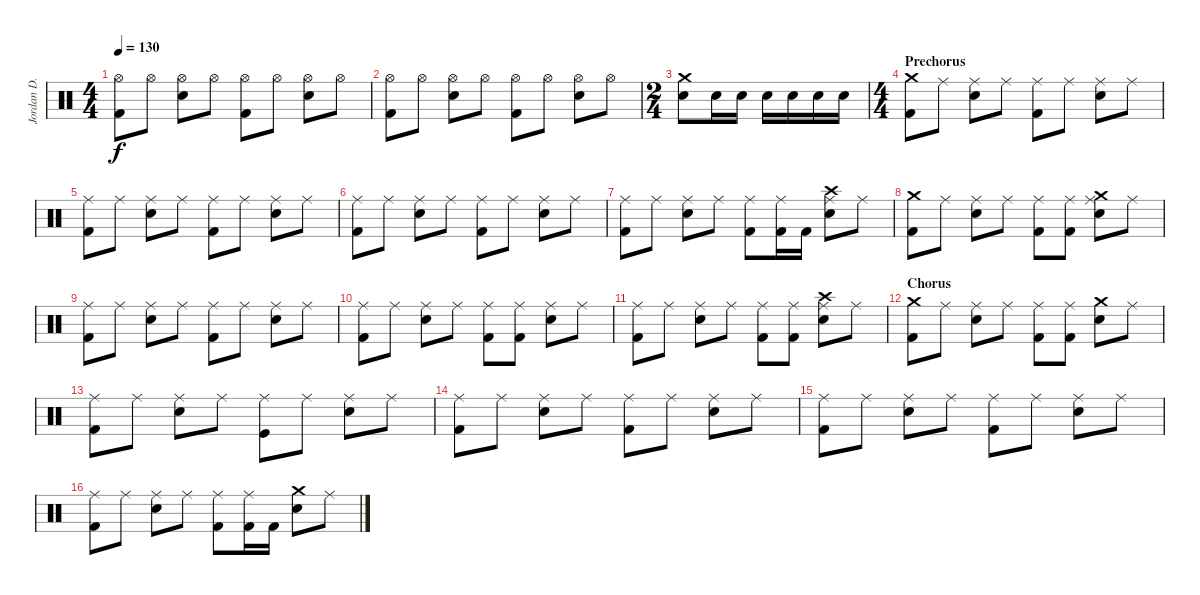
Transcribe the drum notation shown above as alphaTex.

\track ("Jordan D. Samolesky" "Jordan D. ") {instrument percussion}
\staff {score}
\articulation defaults
\ts (4 4)
\tempo 130
\clef neutral
\ks c
("Hi-Hat (open)" "Kick (hit) 2").8{dy f} "Hi-Hat (open)".8 ("Electric Snare (hit)" "Hi-Hat (open)").8 "Hi-Hat (open)".8 ("Hi-Hat (open)" "Kick (hit) 2").8 "Hi-Hat (open)".8 ("Electric Snare (hit)" "Hi-Hat (open)").8 "Hi-Hat (open)".8 |
("Hi-Hat (open)" "Kick (hit) 2").8 "Hi-Hat (open)".8 ("Electric Snare (hit)" "Hi-Hat (open)").8 "Hi-Hat (open)".8 ("Hi-Hat (open)" "Kick (hit) 2").8 "Hi-Hat (open)".8 ("Electric Snare (hit)" "Hi-Hat (open)").8 "Hi-Hat (open)".8 |
\ts (2 4)
("Crash medium (hit)" "Electric Snare (hit)").8 "Electric Snare (hit)".16 "Electric Snare (hit)".16 "Electric Snare (hit)".16 "Electric Snare (hit)".16 "Electric Snare (hit)".16 "Electric Snare (hit)".16 |
\ts (4 4)
\section ("" "Prechorus")
("Crash medium (hit)" "Kick (hit) 2").8 "Ride (middle)".8 ("Electric Snare (hit)" "Ride (middle)").8 "Ride (middle)".8 ("Ride (middle)" "Kick (hit) 2").8 "Ride (middle)".8 ("Electric Snare (hit)" "Ride (middle)").8 "Ride (middle)".8 |
("Ride (middle)" "Kick (hit) 2").8 "Ride (middle)".8 ("Electric Snare (hit)" "Ride (middle)").8 "Ride (middle)".8 ("Ride (middle)" "Kick (hit) 2").8 "Ride (middle)".8 ("Electric Snare (hit)" "Ride (middle)").8 "Ride (middle)".8 |
("Ride (middle)" "Kick (hit) 2").8 "Ride (middle)".8 ("Electric Snare (hit)" "Ride (middle)").8 "Ride (middle)".8 ("Ride (middle)" "Kick (hit) 2").8 "Ride (middle)".8 ("Electric Snare (hit)" "Ride (middle)").8 "Ride (middle)".8 |
("Ride (middle)" "Kick (hit) 2").8 "Ride (middle)".8 ("Electric Snare (hit)" "Ride (middle)").8 "Ride (middle)".8 ("Ride (middle)" "Kick (hit) 2").8 ("Ride (middle)" "Kick (hit) 2").16 "Kick (hit) 2".16 ("Crash high (hit)" "Electric Snare (hit)" "Ride (middle)").8 "Ride (middle)".8 |
("Crash medium (hit)" "Kick (hit) 2").8 "Ride (middle)".8 ("Electric Snare (hit)" "Ride (middle)").8 "Ride (middle)".8 ("Ride (middle)" "Kick (hit) 2").8 ("Ride (middle)" "Kick (hit) 2").8 ("Crash medium (hit)" "Electric Snare (hit)" "Ride (middle)").8 "Ride (middle)".8 |
("Ride (middle)" "Kick (hit) 2").8 "Ride (middle)".8 ("Electric Snare (hit)" "Ride (middle)").8 "Ride (middle)".8 ("Ride (middle)" "Kick (hit) 2").8 "Ride (middle)".8 ("Electric Snare (hit)" "Ride (middle)").8 "Ride (middle)".8 |
("Ride (middle)" "Kick (hit) 2").8 "Ride (middle)".8 ("Electric Snare (hit)" "Ride (middle)").8 "Ride (middle)".8 ("Ride (middle)" "Kick (hit) 2").8 ("Ride (middle)" "Kick (hit) 2").8 ("Electric Snare (hit)" "Ride (middle)").8 "Ride (middle)".8 |
("Ride (middle)" "Kick (hit) 2").8 "Ride (middle)".8 ("Electric Snare (hit)" "Ride (middle)").8 "Ride (middle)".8 ("Ride (middle)" "Kick (hit) 2").8 ("Ride (middle)" "Kick (hit) 2").8 ("Crash high (hit)" "Electric Snare (hit)" "Ride (middle)").8 "Ride (middle)".8 |
\section ("" "Chorus")
("Crash medium (hit)" "Kick (hit) 2").8 "Ride (middle)".8 ("Electric Snare (hit)" "Ride (middle)").8 "Ride (middle)".8 ("Ride (middle)" "Kick (hit) 2").8 ("Ride (middle)" "Kick (hit) 2").8 ("Crash medium (hit)" "Electric Snare (hit)").8 "Ride (middle)".8 |
("Ride (middle)" "Kick (hit) 2").8 "Ride (middle)".8 ("Electric Snare (hit)" "Ride (middle)").8 "Ride (middle)".8 ("Ride (middle)" "Kick (hit)").8 "Ride (middle)".8 ("Electric Snare (hit)" "Ride (middle)").8 "Ride (middle)".8 |
("Ride (middle)" "Kick (hit) 2").8 "Ride (middle)".8 ("Electric Snare (hit)" "Ride (middle)").8 "Ride (middle)".8 ("Ride (middle)" "Kick (hit) 2").8 "Ride (middle)".8 ("Electric Snare (hit)" "Ride (middle)").8 "Ride (middle)".8 |
("Ride (middle)" "Kick (hit) 2").8 "Ride (middle)".8 ("Electric Snare (hit)" "Ride (middle)").8 "Ride (middle)".8 ("Ride (middle)" "Kick (hit) 2").8 "Ride (middle)".8 ("Electric Snare (hit)" "Ride (middle)").8 "Ride (middle)".8 |
("Ride (middle)" "Kick (hit) 2").8 "Ride (middle)".8 ("Electric Snare (hit)" "Ride (middle)").8 "Ride (middle)".8 ("Ride (middle)" "Kick (hit) 2").8 ("Ride (middle)" "Kick (hit) 2").16 "Kick (hit) 2".16 ("Crash medium (hit)" "Electric Snare (hit)").8 "Ride (middle)".8
